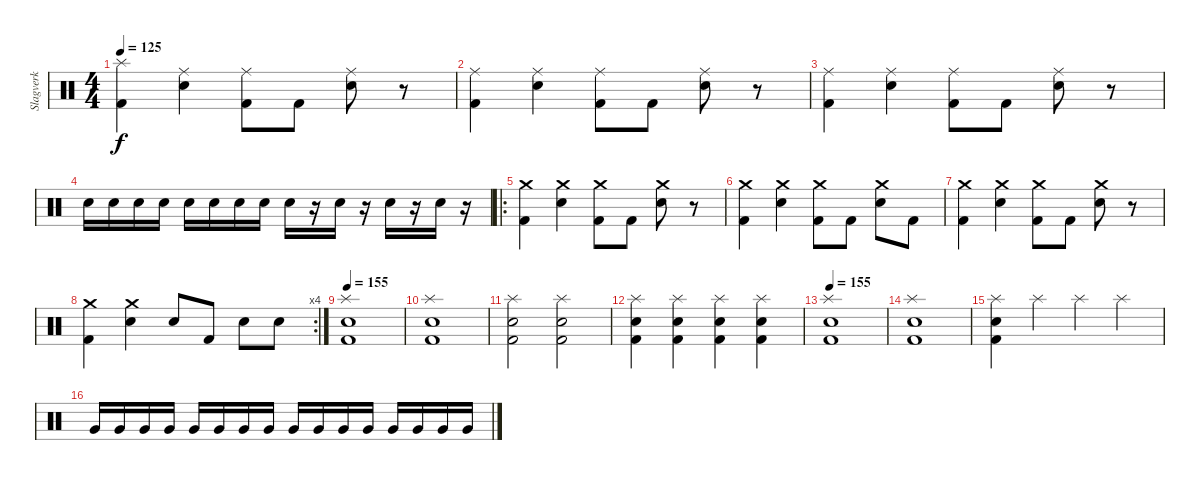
\track ("Slagverk" "Slagverk") {instrument percussion}
\staff {score}
\articulation defaults
\ts (4 4)
\tempo 125
\clef neutral
\ks c
("Splash (hit)" "Kick (hit) 2").4{dy f} ("Ride (middle)" "Electric Snare (hit)").4 ("Ride (middle)" "Kick (hit) 2").8 "Kick (hit) 2".8 ("Ride (middle)" "Electric Snare (hit)").8 r.8 |
("Ride (middle)" "Kick (hit) 2").4 ("Ride (middle)" "Electric Snare (hit)").4 ("Ride (middle)" "Kick (hit) 2").8 "Kick (hit) 2".8 ("Ride (middle)" "Electric Snare (hit)").8 r.8 |
("Ride (middle)" "Kick (hit) 2").4 ("Ride (middle)" "Electric Snare (hit)").4 ("Ride (middle)" "Kick (hit) 2").8 "Kick (hit) 2".8 ("Ride (middle)" "Electric Snare (hit)").8 r.8 |
"Electric Snare (hit)".16 "Electric Snare (hit)".16 "Electric Snare (hit)".16 "Electric Snare (hit)".16 "Electric Snare (hit)".16 "Electric Snare (hit)".16 "Electric Snare (hit)".16 "Electric Snare (hit)".16 "Electric Snare (hit)".16 r.16 "Electric Snare (hit)".16 r.16 "Electric Snare (hit)".16 r.16 "Electric Snare (hit)".16 r.16 |
\ro
("Crash medium (hit)" "Kick (hit) 2").4 ("Crash medium (hit)" "Electric Snare (hit)").4 ("Crash medium (hit)" "Kick (hit) 2").8 "Kick (hit) 2".8 ("Crash medium (hit)" "Electric Snare (hit)").8 r.8 |
("Crash medium (hit)" "Kick (hit) 2").4 ("Crash medium (hit)" "Electric Snare (hit)").4 ("Crash medium (hit)" "Kick (hit) 2").8 "Kick (hit) 2".8 ("Crash medium (hit)" "Electric Snare (hit)").8 "Kick (hit) 2".8 |
("Crash medium (hit)" "Kick (hit) 2").4 ("Crash medium (hit)" "Electric Snare (hit)").4 ("Crash medium (hit)" "Kick (hit) 2").8 "Kick (hit) 2".8 ("Crash medium (hit)" "Electric Snare (hit)").8 r.8 |
\rc 4
("Crash medium (hit)" "Kick (hit) 2").4 ("Crash medium (hit)" "Electric Snare (hit)").4 "Electric Snare (hit)".8 "Kick (hit) 2".8 "Electric Snare (hit)".8 "Electric Snare (hit)".8 |
\tempo 155
("Splash (hit)" "Electric Snare (hit)" "Kick (hit) 2").1 |
("Splash (hit)" "Electric Snare (hit)" "Kick (hit) 2").1 |
("Splash (hit)" "Electric Snare (hit)" "Kick (hit) 2").2 ("Splash (hit)" "Electric Snare (hit)" "Kick (hit) 2").2 |
("Splash (hit)" "Electric Snare (hit)" "Kick (hit) 2").4 ("Splash (hit)" "Electric Snare (hit)" "Kick (hit) 2").4 ("Splash (hit)" "Electric Snare (hit)" "Kick (hit) 2").4 ("Splash (hit)" "Electric Snare (hit)" "Kick (hit) 2").4 |
\tempo 155
("Splash (hit)" "Electric Snare (hit)" "Kick (hit) 2").1 |
("Splash (hit)" "Electric Snare (hit)" "Kick (hit) 2").1 |
("Splash (hit)" "Electric Snare (hit)" "Kick (hit) 2").4 "Splash (hit)".4 "Splash (hit)".4 "Splash (hit)".4 |
"Very Low Tom (hit)".16 "Very Low Tom (hit)".16 "Very Low Tom (hit)".16 "Very Low Tom (hit)".16 "Very Low Tom (hit)".16 "Very Low Tom (hit)".16 "Very Low Tom (hit)".16 "Very Low Tom (hit)".16 "Very Low Tom (hit)".16 "Very Low Tom (hit)".16 "Very Low Tom (hit)".16 "Very Low Tom (hit)".16 "Very Low Tom (hit)".16 "Very Low Tom (hit)".16 "Very Low Tom (hit)".16 "Very Low Tom (hit)".16
